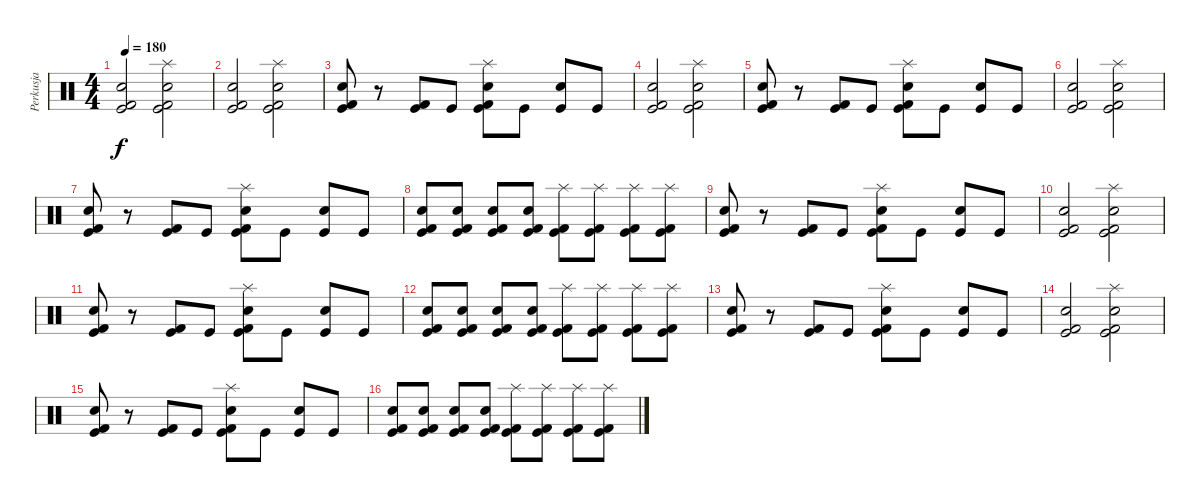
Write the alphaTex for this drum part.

\track ("Perkusja" "Perkusja") {instrument percussion}
\staff {score}
\articulation defaults
\ts (4 4)
\tempo 180
\clef neutral
\ks c
("Electric Snare (hit)" "Kick (hit) 2" "Kick (hit)").2{dy f} ("Snare (hit) 2" "Splash (hit)" "Kick (hit)" "Kick (hit) 2").2 |
("Electric Snare (hit)" "Kick (hit) 2" "Kick (hit)").2 ("Snare (hit) 2" "Splash (hit)" "Kick (hit)" "Kick (hit) 2").2 |
("Electric Snare (hit)" "Kick (hit) 2" "Kick (hit)").8 r.8 ("Kick (hit) 2" "Kick (hit)").8 "Kick (hit)".8 ("Snare (hit) 2" "Splash (hit)" "Kick (hit)" "Kick (hit) 2").8 "Kick (hit)".8 ("Electric Snare (hit)" "Kick (hit)").8 "Kick (hit)".8 |
("Electric Snare (hit)" "Kick (hit) 2" "Kick (hit)").2 ("Snare (hit) 2" "Splash (hit)" "Kick (hit)" "Kick (hit) 2").2 |
("Electric Snare (hit)" "Kick (hit) 2" "Kick (hit)").8 r.8 ("Kick (hit) 2" "Kick (hit)").8 "Kick (hit)".8 ("Snare (hit) 2" "Splash (hit)" "Kick (hit)" "Kick (hit) 2").8 "Kick (hit)".8 ("Electric Snare (hit)" "Kick (hit)").8 "Kick (hit)".8 |
("Electric Snare (hit)" "Kick (hit) 2" "Kick (hit)").2 ("Snare (hit) 2" "Splash (hit)" "Kick (hit)" "Kick (hit) 2").2 |
("Electric Snare (hit)" "Kick (hit) 2" "Kick (hit)").8 r.8 ("Kick (hit) 2" "Kick (hit)").8 "Kick (hit)".8 ("Snare (hit) 2" "Splash (hit)" "Kick (hit)" "Kick (hit) 2").8 "Kick (hit)".8 ("Electric Snare (hit)" "Kick (hit)").8 "Kick (hit)".8 |
("Kick (hit) 2" "Electric Snare (hit)" "Kick (hit)").8 ("Kick (hit) 2" "Electric Snare (hit)" "Kick (hit)").8 ("Kick (hit) 2" "Electric Snare (hit)" "Kick (hit)").8 ("Kick (hit) 2" "Electric Snare (hit)" "Kick (hit)").8 ("Kick (hit) 2" "Splash (hit)" "Kick (hit)").8 ("Kick (hit) 2" "Splash (hit)" "Kick (hit)").8 ("Kick (hit) 2" "Splash (hit)" "Kick (hit)").8 ("Kick (hit) 2" "Splash (hit)" "Kick (hit)").8 |
("Electric Snare (hit)" "Kick (hit) 2" "Kick (hit)").8 r.8 ("Kick (hit) 2" "Kick (hit)").8 "Kick (hit)".8 ("Snare (hit) 2" "Splash (hit)" "Kick (hit)" "Kick (hit) 2").8 "Kick (hit)".8 ("Electric Snare (hit)" "Kick (hit)").8 "Kick (hit)".8 |
("Electric Snare (hit)" "Kick (hit) 2" "Kick (hit)").2 ("Snare (hit) 2" "Splash (hit)" "Kick (hit)" "Kick (hit) 2").2 |
("Electric Snare (hit)" "Kick (hit) 2" "Kick (hit)").8 r.8 ("Kick (hit) 2" "Kick (hit)").8 "Kick (hit)".8 ("Snare (hit) 2" "Splash (hit)" "Kick (hit)" "Kick (hit) 2").8 "Kick (hit)".8 ("Electric Snare (hit)" "Kick (hit)").8 "Kick (hit)".8 |
("Kick (hit) 2" "Electric Snare (hit)" "Kick (hit)").8 ("Kick (hit) 2" "Electric Snare (hit)" "Kick (hit)").8 ("Kick (hit) 2" "Electric Snare (hit)" "Kick (hit)").8 ("Kick (hit) 2" "Electric Snare (hit)" "Kick (hit)").8 ("Kick (hit) 2" "Splash (hit)" "Kick (hit)").8 ("Kick (hit) 2" "Splash (hit)" "Kick (hit)").8 ("Kick (hit) 2" "Splash (hit)" "Kick (hit)").8 ("Kick (hit) 2" "Splash (hit)" "Kick (hit)").8 |
("Electric Snare (hit)" "Kick (hit) 2" "Kick (hit)").8 r.8 ("Kick (hit) 2" "Kick (hit)").8 "Kick (hit)".8 ("Snare (hit) 2" "Splash (hit)" "Kick (hit)" "Kick (hit) 2").8 "Kick (hit)".8 ("Electric Snare (hit)" "Kick (hit)").8 "Kick (hit)".8 |
("Electric Snare (hit)" "Kick (hit) 2" "Kick (hit)").2 ("Snare (hit) 2" "Splash (hit)" "Kick (hit)" "Kick (hit) 2").2 |
("Electric Snare (hit)" "Kick (hit) 2" "Kick (hit)").8 r.8 ("Kick (hit) 2" "Kick (hit)").8 "Kick (hit)".8 ("Snare (hit) 2" "Splash (hit)" "Kick (hit)" "Kick (hit) 2").8 "Kick (hit)".8 ("Electric Snare (hit)" "Kick (hit)").8 "Kick (hit)".8 |
("Kick (hit) 2" "Electric Snare (hit)" "Kick (hit)").8 ("Kick (hit) 2" "Electric Snare (hit)" "Kick (hit)").8 ("Kick (hit) 2" "Electric Snare (hit)" "Kick (hit)").8 ("Kick (hit) 2" "Electric Snare (hit)" "Kick (hit)").8 ("Kick (hit) 2" "Splash (hit)" "Kick (hit)").8 ("Kick (hit) 2" "Splash (hit)" "Kick (hit)").8 ("Kick (hit) 2" "Splash (hit)" "Kick (hit)").8 ("Kick (hit) 2" "Splash (hit)" "Kick (hit)").8
